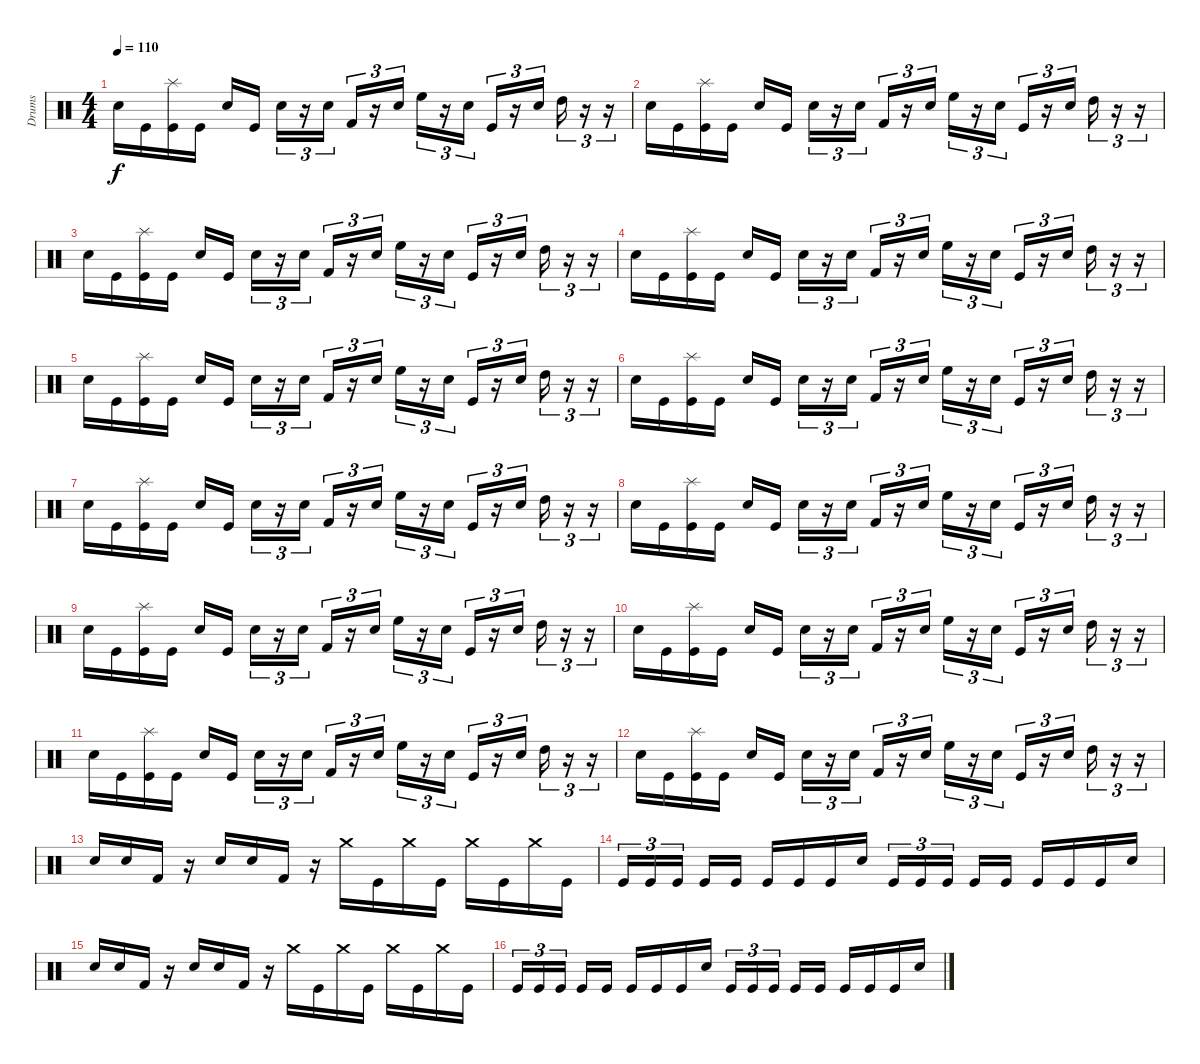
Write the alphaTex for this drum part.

\track ("Drums" "Drums") {instrument percussion}
\staff {score}
\articulation defaults
\ts (4 4)
\tempo 110
\clef neutral
\ks c "Electric Snare (hit)".16{dy f} "Kick (hit)".16
("Splash (hit)" "Kick (hit)").16 "Kick (hit)".16 "Electric Snare (hit)".16 "Kick (hit)".16{beam splitsecondary} "Snare (hit) 2".16{tu (3 2)} r.16{tu (3 2)} "Electric Snare (hit)".16{tu (3 2)} "Kick (hit) 2".16{tu (3 2)} r.16{tu (3 2)} "Electric Snare (hit)".16{tu (3 2)} "High Floor Tom (hit)".16{tu (3 2)} r.16{tu (3 2)} "Electric Snare (hit)".16{tu (3 2)} "Kick (hit)".16{tu (3 2)} r.16{tu (3 2)} "Electric Snare (hit)".16{tu (3 2)} "High Tom (hit)".16{tu (3 2)} r.16{tu (3 2)} r.16{tu (3 2)} |
"Electric Snare (hit)".16 "Kick (hit)".16 ("Splash (hit)" "Kick (hit)").16 "Kick (hit)".16 "Electric Snare (hit)".16 "Kick (hit)".16{beam splitsecondary} "Snare (hit) 2".16{tu (3 2)} r.16{tu (3 2)} "Electric Snare (hit)".16{tu (3 2)} "Kick (hit) 2".16{tu (3 2)} r.16{tu (3 2)} "Electric Snare (hit)".16{tu (3 2)} "High Floor Tom (hit)".16{tu (3 2)} r.16{tu (3 2)} "Electric Snare (hit)".16{tu (3 2)} "Kick (hit)".16{tu (3 2)} r.16{tu (3 2)} "Electric Snare (hit)".16{tu (3 2)} "High Tom (hit)".16{tu (3 2)} r.16{tu (3 2)} r.16{tu (3 2)} |
"Electric Snare (hit)".16 "Kick (hit)".16 ("Splash (hit)" "Kick (hit)").16 "Kick (hit)".16 "Electric Snare (hit)".16 "Kick (hit)".16{beam splitsecondary} "Snare (hit) 2".16{tu (3 2)} r.16{tu (3 2)} "Electric Snare (hit)".16{tu (3 2)} "Kick (hit) 2".16{tu (3 2)} r.16{tu (3 2)} "Electric Snare (hit)".16{tu (3 2)} "High Floor Tom (hit)".16{tu (3 2)} r.16{tu (3 2)} "Electric Snare (hit)".16{tu (3 2)} "Kick (hit)".16{tu (3 2)} r.16{tu (3 2)} "Electric Snare (hit)".16{tu (3 2)} "High Tom (hit)".16{tu (3 2)} r.16{tu (3 2)} r.16{tu (3 2)} |
"Electric Snare (hit)".16 "Kick (hit)".16 ("Splash (hit)" "Kick (hit)").16 "Kick (hit)".16 "Electric Snare (hit)".16 "Kick (hit)".16{beam splitsecondary} "Snare (hit) 2".16{tu (3 2)} r.16{tu (3 2)} "Electric Snare (hit)".16{tu (3 2)} "Kick (hit) 2".16{tu (3 2)} r.16{tu (3 2)} "Electric Snare (hit)".16{tu (3 2)} "High Floor Tom (hit)".16{tu (3 2)} r.16{tu (3 2)} "Electric Snare (hit)".16{tu (3 2)} "Kick (hit)".16{tu (3 2)} r.16{tu (3 2)} "Electric Snare (hit)".16{tu (3 2)} "High Tom (hit)".16{tu (3 2)} r.16{tu (3 2)} r.16{tu (3 2)} |
"Electric Snare (hit)".16 "Kick (hit)".16 ("Splash (hit)" "Kick (hit)").16 "Kick (hit)".16 "Electric Snare (hit)".16 "Kick (hit)".16{beam splitsecondary} "Snare (hit) 2".16{tu (3 2)} r.16{tu (3 2)} "Electric Snare (hit)".16{tu (3 2)} "Kick (hit) 2".16{tu (3 2)} r.16{tu (3 2)} "Electric Snare (hit)".16{tu (3 2)} "High Floor Tom (hit)".16{tu (3 2)} r.16{tu (3 2)} "Electric Snare (hit)".16{tu (3 2)} "Kick (hit)".16{tu (3 2)} r.16{tu (3 2)} "Electric Snare (hit)".16{tu (3 2)} "High Tom (hit)".16{tu (3 2)} r.16{tu (3 2)} r.16{tu (3 2)} |
"Electric Snare (hit)".16 "Kick (hit)".16 ("Splash (hit)" "Kick (hit)").16 "Kick (hit)".16 "Electric Snare (hit)".16 "Kick (hit)".16{beam splitsecondary} "Snare (hit) 2".16{tu (3 2)} r.16{tu (3 2)} "Electric Snare (hit)".16{tu (3 2)} "Kick (hit) 2".16{tu (3 2)} r.16{tu (3 2)} "Electric Snare (hit)".16{tu (3 2)} "High Floor Tom (hit)".16{tu (3 2)} r.16{tu (3 2)} "Electric Snare (hit)".16{tu (3 2)} "Kick (hit)".16{tu (3 2)} r.16{tu (3 2)} "Electric Snare (hit)".16{tu (3 2)} "High Tom (hit)".16{tu (3 2)} r.16{tu (3 2)} r.16{tu (3 2)} |
"Electric Snare (hit)".16 "Kick (hit)".16 ("Splash (hit)" "Kick (hit)").16 "Kick (hit)".16 "Electric Snare (hit)".16 "Kick (hit)".16{beam splitsecondary} "Snare (hit) 2".16{tu (3 2)} r.16{tu (3 2)} "Electric Snare (hit)".16{tu (3 2)} "Kick (hit) 2".16{tu (3 2)} r.16{tu (3 2)} "Electric Snare (hit)".16{tu (3 2)} "High Floor Tom (hit)".16{tu (3 2)} r.16{tu (3 2)} "Electric Snare (hit)".16{tu (3 2)} "Kick (hit)".16{tu (3 2)} r.16{tu (3 2)} "Electric Snare (hit)".16{tu (3 2)} "High Tom (hit)".16{tu (3 2)} r.16{tu (3 2)} r.16{tu (3 2)} |
"Electric Snare (hit)".16 "Kick (hit)".16 ("Splash (hit)" "Kick (hit)").16 "Kick (hit)".16 "Electric Snare (hit)".16 "Kick (hit)".16{beam splitsecondary} "Snare (hit) 2".16{tu (3 2)} r.16{tu (3 2)} "Electric Snare (hit)".16{tu (3 2)} "Kick (hit) 2".16{tu (3 2)} r.16{tu (3 2)} "Electric Snare (hit)".16{tu (3 2)} "High Floor Tom (hit)".16{tu (3 2)} r.16{tu (3 2)} "Electric Snare (hit)".16{tu (3 2)} "Kick (hit)".16{tu (3 2)} r.16{tu (3 2)} "Electric Snare (hit)".16{tu (3 2)} "High Tom (hit)".16{tu (3 2)} r.16{tu (3 2)} r.16{tu (3 2)} |
"Electric Snare (hit)".16 "Kick (hit)".16 ("Splash (hit)" "Kick (hit)").16 "Kick (hit)".16 "Electric Snare (hit)".16 "Kick (hit)".16{beam splitsecondary} "Snare (hit) 2".16{tu (3 2)} r.16{tu (3 2)} "Electric Snare (hit)".16{tu (3 2)} "Kick (hit) 2".16{tu (3 2)} r.16{tu (3 2)} "Electric Snare (hit)".16{tu (3 2)} "High Floor Tom (hit)".16{tu (3 2)} r.16{tu (3 2)} "Electric Snare (hit)".16{tu (3 2)} "Kick (hit)".16{tu (3 2)} r.16{tu (3 2)} "Electric Snare (hit)".16{tu (3 2)} "High Tom (hit)".16{tu (3 2)} r.16{tu (3 2)} r.16{tu (3 2)} |
"Electric Snare (hit)".16 "Kick (hit)".16 ("Splash (hit)" "Kick (hit)").16 "Kick (hit)".16 "Electric Snare (hit)".16 "Kick (hit)".16{beam splitsecondary} "Snare (hit) 2".16{tu (3 2)} r.16{tu (3 2)} "Electric Snare (hit)".16{tu (3 2)} "Kick (hit) 2".16{tu (3 2)} r.16{tu (3 2)} "Electric Snare (hit)".16{tu (3 2)} "High Floor Tom (hit)".16{tu (3 2)} r.16{tu (3 2)} "Electric Snare (hit)".16{tu (3 2)} "Kick (hit)".16{tu (3 2)} r.16{tu (3 2)} "Electric Snare (hit)".16{tu (3 2)} "High Tom (hit)".16{tu (3 2)} r.16{tu (3 2)} r.16{tu (3 2)} |
"Electric Snare (hit)".16 "Kick (hit)".16 ("Splash (hit)" "Kick (hit)").16 "Kick (hit)".16 "Electric Snare (hit)".16 "Kick (hit)".16{beam splitsecondary} "Snare (hit) 2".16{tu (3 2)} r.16{tu (3 2)} "Electric Snare (hit)".16{tu (3 2)} "Kick (hit) 2".16{tu (3 2)} r.16{tu (3 2)} "Electric Snare (hit)".16{tu (3 2)} "High Floor Tom (hit)".16{tu (3 2)} r.16{tu (3 2)} "Electric Snare (hit)".16{tu (3 2)} "Kick (hit)".16{tu (3 2)} r.16{tu (3 2)} "Electric Snare (hit)".16{tu (3 2)} "High Tom (hit)".16{tu (3 2)} r.16{tu (3 2)} r.16{tu (3 2)} |
"Electric Snare (hit)".16 "Kick (hit)".16 ("Splash (hit)" "Kick (hit)").16 "Kick (hit)".16 "Electric Snare (hit)".16 "Kick (hit)".16{beam splitsecondary} "Snare (hit) 2".16{tu (3 2)} r.16{tu (3 2)} "Electric Snare (hit)".16{tu (3 2)} "Kick (hit) 2".16{tu (3 2)} r.16{tu (3 2)} "Electric Snare (hit)".16{tu (3 2)} "High Floor Tom (hit)".16{tu (3 2)} r.16{tu (3 2)} "Electric Snare (hit)".16{tu (3 2)} "Kick (hit)".16{tu (3 2)} r.16{tu (3 2)} "Electric Snare (hit)".16{tu (3 2)} "High Tom (hit)".16{tu (3 2)} r.16{tu (3 2)} r.16{tu (3 2)} |
"Snare (hit) 2".16 "Snare (hit) 2".16 "Kick (hit) 2".16 r.16 "Snare (hit) 2".16 "Snare (hit) 2".16 "Kick (hit) 2".16 r.16 "Crash medium (hit)".16 "Kick (hit)".16 "Crash medium (hit)".16 "Kick (hit)".16 "Crash medium (hit)".16 "Kick (hit)".16 "Crash medium (hit)".16 "Kick (hit)".16 |
"Kick (hit)".16{tu (3 2)} "Kick (hit)".16{tu (3 2)} "Kick (hit)".16{tu (3 2) beam splitsecondary} "Kick (hit)".16 "Kick (hit)".16 "Kick (hit)".16 "Kick (hit)".16 "Kick (hit)".16 "Snare (hit) 2".16 "Kick (hit)".16{tu (3 2)} "Kick (hit)".16{tu (3 2)} "Kick (hit)".16{tu (3 2) beam splitsecondary} "Kick (hit)".16 "Kick (hit)".16 "Kick (hit)".16 "Kick (hit)".16 "Kick (hit)".16 "Snare (hit) 2".16 |
"Snare (hit) 2".16 "Snare (hit) 2".16 "Kick (hit) 2".16 r.16 "Snare (hit) 2".16 "Snare (hit) 2".16 "Kick (hit) 2".16 r.16 "Crash medium (hit)".16 "Kick (hit)".16 "Crash medium (hit)".16 "Kick (hit)".16 "Crash medium (hit)".16 "Kick (hit)".16 "Crash medium (hit)".16 "Kick (hit)".16 |
"Kick (hit)".16{tu (3 2)} "Kick (hit)".16{tu (3 2)} "Kick (hit)".16{tu (3 2) beam splitsecondary} "Kick (hit)".16 "Kick (hit)".16 "Kick (hit)".16 "Kick (hit)".16 "Kick (hit)".16 "Snare (hit) 2".16 "Kick (hit)".16{tu (3 2)} "Kick (hit)".16{tu (3 2)} "Kick (hit)".16{tu (3 2) beam splitsecondary} "Kick (hit)".16 "Kick (hit)".16 "Kick (hit)".16 "Kick (hit)".16 "Kick (hit)".16 "Snare (hit) 2".16
